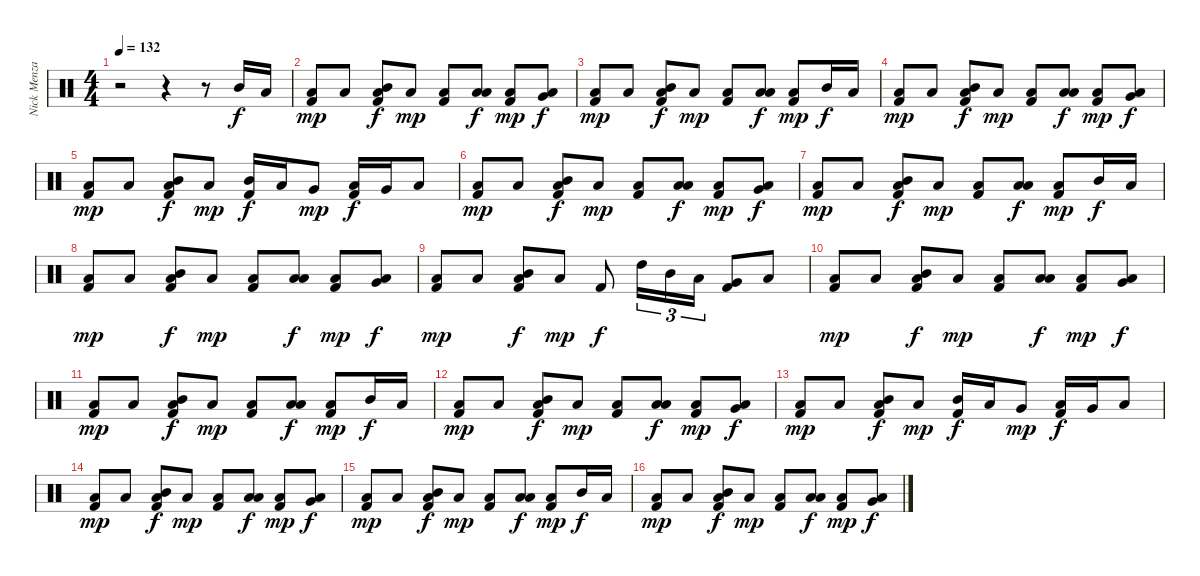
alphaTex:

\track ("Nick Menza (Drums)" "Nick Menza") {instrument percussion}
\staff {score}
\articulation defaults
\ts (4 4)
\tempo 132
\clef neutral
\ks c
r.2{dy f} r.4 r.8 "Mid Tom (hit)".16 "Low Tom (hit)".16 |
("Low Floor Tom (hit)" "Kick (hit) 2").8{dy mp} "Low Floor Tom (hit)".8 ("Low Floor Tom (hit)" "Mid Tom (hit)" "Kick (hit) 2").8{dy f} "Low Floor Tom (hit)".8{dy mp} ("Low Floor Tom (hit)" "Kick (hit) 2").8 ("Low Floor Tom (hit)" "Low Tom (hit)").8{dy f} ("Low Floor Tom (hit)" "Kick (hit) 2").8{dy mp} ("Low Floor Tom (hit)" "Very Low Tom (hit)").8{dy f} |
("Low Floor Tom (hit)" "Kick (hit) 2").8{dy mp} "Low Floor Tom (hit)".8 ("Low Floor Tom (hit)" "Mid Tom (hit)" "Kick (hit) 2").8{dy f} "Low Floor Tom (hit)".8{dy mp} ("Low Floor Tom (hit)" "Kick (hit) 2").8 ("Low Floor Tom (hit)" "Low Tom (hit)").8{dy f} ("Low Floor Tom (hit)" "Kick (hit) 2").8{dy mp} "Mid Tom (hit)".16{dy f} "Low Tom (hit)".16 |
("Low Floor Tom (hit)" "Kick (hit) 2").8{dy mp} "Low Floor Tom (hit)".8 ("Low Floor Tom (hit)" "Mid Tom (hit)" "Kick (hit) 2").8{dy f} "Low Floor Tom (hit)".8{dy mp} ("Low Floor Tom (hit)" "Kick (hit) 2").8 ("Low Floor Tom (hit)" "Low Tom (hit)").8{dy f} ("Low Floor Tom (hit)" "Kick (hit) 2").8{dy mp} ("Low Floor Tom (hit)" "Very Low Tom (hit)").8{dy f} |
("Low Floor Tom (hit)" "Kick (hit) 2").8{dy mp} "Low Floor Tom (hit)".8 ("Low Floor Tom (hit)" "Mid Tom (hit)" "Kick (hit) 2").8{dy f} "Low Floor Tom (hit)".8{dy mp} ("Mid Tom (hit)" "Kick (hit) 2").16{dy f} "Low Tom (hit)".16 "Very Low Tom (hit)".8{dy mp} ("Low Tom (hit)" "Kick (hit) 2").16{dy f} "Very Low Tom (hit)".16 "Low Floor Tom (hit)".8 |
("Low Floor Tom (hit)" "Kick (hit) 2").8{dy mp} "Low Floor Tom (hit)".8 ("Low Floor Tom (hit)" "Mid Tom (hit)" "Kick (hit) 2").8{dy f} "Low Floor Tom (hit)".8{dy mp} ("Low Floor Tom (hit)" "Kick (hit) 2").8 ("Low Floor Tom (hit)" "Low Tom (hit)").8{dy f} ("Low Floor Tom (hit)" "Kick (hit) 2").8{dy mp} ("Low Floor Tom (hit)" "Very Low Tom (hit)").8{dy f} |
("Low Floor Tom (hit)" "Kick (hit) 2").8{dy mp} "Low Floor Tom (hit)".8 ("Low Floor Tom (hit)" "Mid Tom (hit)" "Kick (hit) 2").8{dy f} "Low Floor Tom (hit)".8{dy mp} ("Low Floor Tom (hit)" "Kick (hit) 2").8 ("Low Floor Tom (hit)" "Low Tom (hit)").8{dy f} ("Low Floor Tom (hit)" "Kick (hit) 2").8{dy mp} "Mid Tom (hit)".16{dy f} "Low Tom (hit)".16 |
("Low Floor Tom (hit)" "Kick (hit) 2").8{dy mp} "Low Floor Tom (hit)".8 ("Low Floor Tom (hit)" "Mid Tom (hit)" "Kick (hit) 2").8{dy f} "Low Floor Tom (hit)".8{dy mp} ("Low Floor Tom (hit)" "Kick (hit) 2").8 ("Low Floor Tom (hit)" "Low Tom (hit)").8{dy f} ("Low Floor Tom (hit)" "Kick (hit) 2").8{dy mp} ("Low Floor Tom (hit)" "Very Low Tom (hit)").8{dy f} |
("Low Floor Tom (hit)" "Kick (hit) 2").8{dy mp} "Low Floor Tom (hit)".8 ("Low Floor Tom (hit)" "Mid Tom (hit)" "Kick (hit) 2").8{dy f} "Low Floor Tom (hit)".8{dy mp} "Kick (hit) 2".8{dy f} "High Tom (hit)".16{tu (3 2)} "Mid Tom (hit)".16{tu (3 2)} "Low Tom (hit)".16{tu (3 2)} ("Very Low Tom (hit)" "Kick (hit) 2").8 "Low Floor Tom (hit)".8 |
("Low Floor Tom (hit)" "Kick (hit) 2").8{dy mp} "Low Floor Tom (hit)".8 ("Low Floor Tom (hit)" "Mid Tom (hit)" "Kick (hit) 2").8{dy f} "Low Floor Tom (hit)".8{dy mp} ("Low Floor Tom (hit)" "Kick (hit) 2").8 ("Low Floor Tom (hit)" "Low Tom (hit)").8{dy f} ("Low Floor Tom (hit)" "Kick (hit) 2").8{dy mp} ("Low Floor Tom (hit)" "Very Low Tom (hit)").8{dy f} |
("Low Floor Tom (hit)" "Kick (hit) 2").8{dy mp} "Low Floor Tom (hit)".8 ("Low Floor Tom (hit)" "Mid Tom (hit)" "Kick (hit) 2").8{dy f} "Low Floor Tom (hit)".8{dy mp} ("Low Floor Tom (hit)" "Kick (hit) 2").8 ("Low Floor Tom (hit)" "Low Tom (hit)").8{dy f} ("Low Floor Tom (hit)" "Kick (hit) 2").8{dy mp} "Mid Tom (hit)".16{dy f} "Low Tom (hit)".16 |
("Low Floor Tom (hit)" "Kick (hit) 2").8{dy mp} "Low Floor Tom (hit)".8 ("Low Floor Tom (hit)" "Mid Tom (hit)" "Kick (hit) 2").8{dy f} "Low Floor Tom (hit)".8{dy mp} ("Low Floor Tom (hit)" "Kick (hit) 2").8 ("Low Floor Tom (hit)" "Low Tom (hit)").8{dy f} ("Low Floor Tom (hit)" "Kick (hit) 2").8{dy mp} ("Low Floor Tom (hit)" "Very Low Tom (hit)").8{dy f} |
("Low Floor Tom (hit)" "Kick (hit) 2").8{dy mp} "Low Floor Tom (hit)".8 ("Low Floor Tom (hit)" "Mid Tom (hit)" "Kick (hit) 2").8{dy f} "Low Floor Tom (hit)".8{dy mp} ("Mid Tom (hit)" "Kick (hit) 2").16{dy f} "Low Tom (hit)".16 "Very Low Tom (hit)".8{dy mp} ("Low Tom (hit)" "Kick (hit) 2").16{dy f} "Very Low Tom (hit)".16 "Low Floor Tom (hit)".8 |
("Low Floor Tom (hit)" "Kick (hit) 2").8{dy mp} "Low Floor Tom (hit)".8 ("Low Floor Tom (hit)" "Mid Tom (hit)" "Kick (hit) 2").8{dy f} "Low Floor Tom (hit)".8{dy mp} ("Low Floor Tom (hit)" "Kick (hit) 2").8 ("Low Floor Tom (hit)" "Low Tom (hit)").8{dy f} ("Low Floor Tom (hit)" "Kick (hit) 2").8{dy mp} ("Low Floor Tom (hit)" "Very Low Tom (hit)").8{dy f} |
("Low Floor Tom (hit)" "Kick (hit) 2").8{dy mp} "Low Floor Tom (hit)".8 ("Low Floor Tom (hit)" "Mid Tom (hit)" "Kick (hit) 2").8{dy f} "Low Floor Tom (hit)".8{dy mp} ("Low Floor Tom (hit)" "Kick (hit) 2").8 ("Low Floor Tom (hit)" "Low Tom (hit)").8{dy f} ("Low Floor Tom (hit)" "Kick (hit) 2").8{dy mp} "Mid Tom (hit)".16{dy f} "Low Tom (hit)".16 |
("Low Floor Tom (hit)" "Kick (hit) 2").8{dy mp} "Low Floor Tom (hit)".8 ("Low Floor Tom (hit)" "Mid Tom (hit)" "Kick (hit) 2").8{dy f} "Low Floor Tom (hit)".8{dy mp} ("Low Floor Tom (hit)" "Kick (hit) 2").8 ("Low Floor Tom (hit)" "Low Tom (hit)").8{dy f} ("Low Floor Tom (hit)" "Kick (hit) 2").8{dy mp} ("Low Floor Tom (hit)" "Very Low Tom (hit)").8{dy f}
